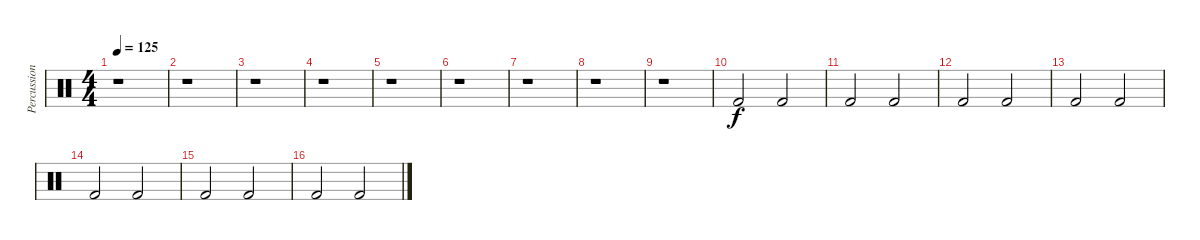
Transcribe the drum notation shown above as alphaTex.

\track ("Percussions" "Percussion") {instrument percussion}
\staff {score}
\articulation defaults
\ts (4 4)
\tempo 125
\clef neutral
\ks c
r.1{dy f} |
r.1 |
r.1 |
r.1 |
r.1 |
r.1 |
r.1 |
r.1 |
r.1 |
"Kick (hit) 2".2 "Kick (hit) 2".2 |
"Kick (hit) 2".2 "Kick (hit) 2".2 |
"Kick (hit) 2".2 "Kick (hit) 2".2 |
"Kick (hit) 2".2 "Kick (hit) 2".2 |
"Kick (hit) 2".2 "Kick (hit) 2".2 |
"Kick (hit) 2".2 "Kick (hit) 2".2 |
"Kick (hit) 2".2 "Kick (hit) 2".2
